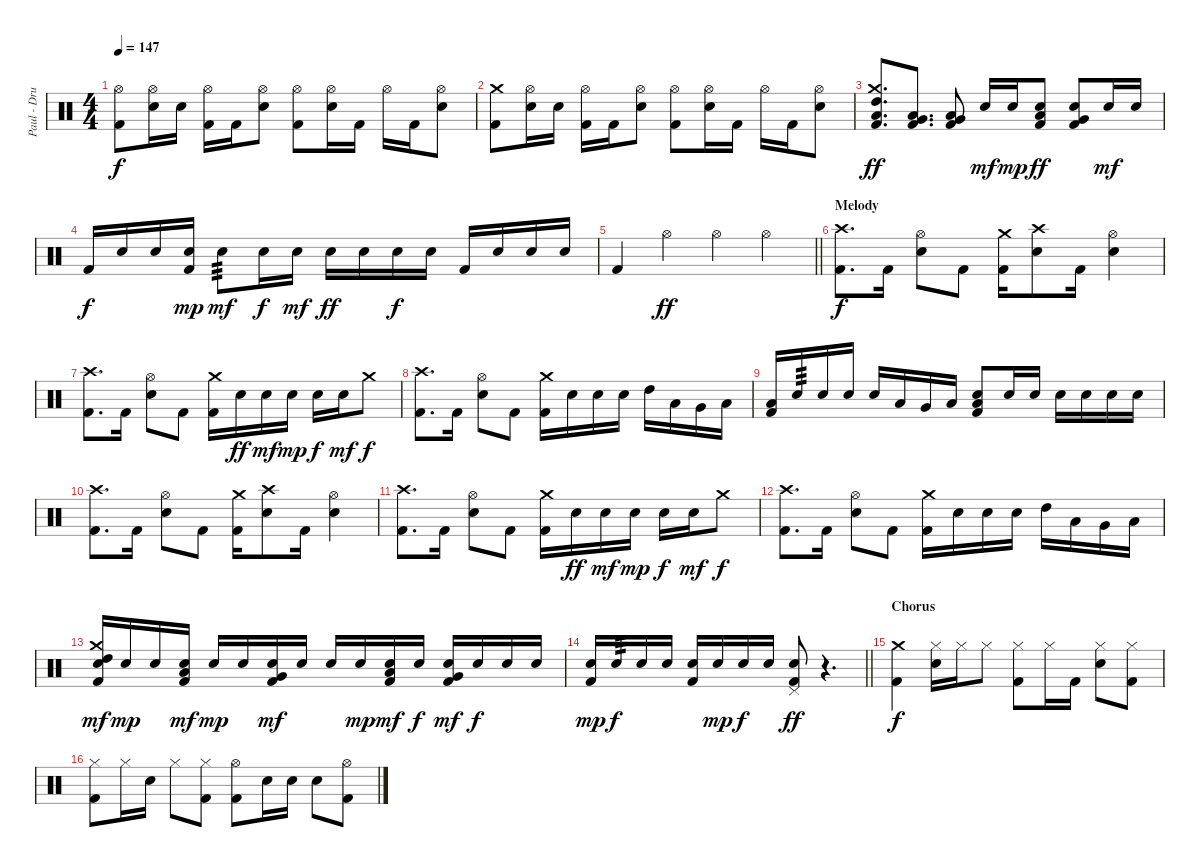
\track ("Paul - Drums" "Paul - Dru") {instrument percussion}
\staff {score}
\articulation defaults
\ts (4 4)
\tempo 147
\clef neutral
\ks c
("Hi-Hat (open)" "Kick (hit) 2").8{dy f} ("Hi-Hat (open)" "Electric Snare (hit)").16 "Electric Snare (hit)".16 ("Hi-Hat (open)" "Kick (hit) 2").16 "Kick (hit) 2".16 ("Hi-Hat (open)" "Electric Snare (hit)").8 ("Hi-Hat (open)" "Kick (hit) 2").8 ("Hi-Hat (open)" "Electric Snare (hit)").16 "Kick (hit) 2".16 "Hi-Hat (open)".16 "Kick (hit) 2".16 ("Hi-Hat (open)" "Electric Snare (hit)").8 |
("Crash medium (hit)" "Kick (hit) 2").8 ("Hi-Hat (open)" "Electric Snare (hit)").16 "Electric Snare (hit)".16 ("Hi-Hat (open)" "Kick (hit) 2").16 "Kick (hit) 2".16 ("Hi-Hat (open)" "Electric Snare (hit)").8 ("Hi-Hat (open)" "Kick (hit) 2").8 ("Hi-Hat (open)" "Electric Snare (hit)").16 "Kick (hit) 2".16 "Hi-Hat (open)".16 "Kick (hit) 2".16 ("Hi-Hat (open)" "Electric Snare (hit)").8 |
("Crash medium (hit)" "High Tom (hit)" "Low Tom (hit)" "Kick (hit) 2").8{d dy ff} ("Low Tom (hit)" "Very Low Tom (hit)" "Kick (hit) 2").8{d} ("Very Low Tom (hit)" "Low Floor Tom (hit)" "Kick (hit) 2").8 "Electric Snare (hit)".16{dy mf} "Electric Snare (hit)".16{dy mp} ("Low Tom (hit)" "Electric Snare (hit)" "Kick (hit) 2").8{dy ff} ("Very Low Tom (hit)" "Electric Snare (hit)" "Kick (hit) 2").8 "Electric Snare (hit)".16{dy mf} "Electric Snare (hit)".16 |
"Kick (hit) 2".16{dy f} "Electric Snare (hit)".16 "Electric Snare (hit)".16 ("Electric Snare (hit)" "Kick (hit) 2").16{dy mp} "Electric Snare (hit)".8{tp 3 dy mf} "Electric Snare (hit)".16{dy f} "Electric Snare (hit)".16{dy mf} "Electric Snare (hit)".16{dy ff} "Electric Snare (hit)".16 "Electric Snare (hit)".16{dy f} "Electric Snare (hit)".16 "Kick (hit) 2".16 "Electric Snare (hit)".16 "Electric Snare (hit)".16 "Electric Snare (hit)".16 |
\barLineRight lightlight "Kick (hit) 2".4 "Hi-Hat (open)".4{dy ff} "Hi-Hat (open)".4 "Hi-Hat (open)".4
|
\section ("" "Melody")
("Crash high (hit)" "Kick (hit) 2").8{d dy f} "Kick (hit) 2".16 ("Hi-Hat (open)" "Electric Snare (hit)").8 "Kick (hit) 2".8 ("Crash medium (hit)" "Kick (hit) 2").16 ("Crash high (hit)" "Electric Snare (hit)").8 "Kick (hit) 2".16 ("Hi-Hat (open)" "Electric Snare (hit)").4 |
("Crash high (hit)" "Kick (hit) 2").8{d} "Kick (hit) 2".16 ("Hi-Hat (open)" "Electric Snare (hit)").8 "Kick (hit) 2".8 ("Crash medium (hit)" "Kick (hit) 2").16 "Electric Snare (hit)".16{dy ff} "Electric Snare (hit)".16{dy mf} "Electric Snare (hit)".16{dy mp} "Electric Snare (hit)".16{dy f} "Electric Snare (hit)".16{dy mf} "Crash medium (hit)".8{dy f} |
("Crash high (hit)" "Kick (hit) 2").8{d} "Kick (hit) 2".16 ("Hi-Hat (open)" "Electric Snare (hit)").8 "Kick (hit) 2".8 ("Crash medium (hit)" "Kick (hit) 2").16 "Electric Snare (hit)".16 "Electric Snare (hit)".16 "Electric Snare (hit)".16 "High Tom (hit)".16 "Low Tom (hit)".16 "Very Low Tom (hit)".16 "Low Floor Tom (hit)".16 |
("Low Floor Tom (hit)" "Kick (hit) 2").16 "Electric Snare (hit)".16{tp 3} "Electric Snare (hit)".16 "Electric Snare (hit)".16 "Electric Snare (hit)".16 "Low Tom (hit)".16 "Very Low Tom (hit)".16 "Low Floor Tom (hit)".16 ("Low Floor Tom (hit)" "Electric Snare (hit)" "Kick (hit) 2").8 "Electric Snare (hit)".16 "Electric Snare (hit)".16 "Electric Snare (hit)".16 "Electric Snare (hit)".16 "Electric Snare (hit)".16 "Electric Snare (hit)".16 |
("Crash high (hit)" "Kick (hit) 2").8{d} "Kick (hit) 2".16 ("Hi-Hat (open)" "Electric Snare (hit)").8 "Kick (hit) 2".8 ("Crash medium (hit)" "Kick (hit) 2").16 ("Crash high (hit)" "Electric Snare (hit)").8 "Kick (hit) 2".16 ("Hi-Hat (open)" "Electric Snare (hit)").4 |
("Crash high (hit)" "Kick (hit) 2").8{d} "Kick (hit) 2".16 ("Hi-Hat (open)" "Electric Snare (hit)").8 "Kick (hit) 2".8 ("Crash medium (hit)" "Kick (hit) 2").16 "Electric Snare (hit)".16{dy ff} "Electric Snare (hit)".16{dy mf} "Electric Snare (hit)".16{dy mp} "Electric Snare (hit)".16{dy f} "Electric Snare (hit)".16{dy mf} "Crash medium (hit)".8{dy f} |
("Crash high (hit)" "Kick (hit) 2").8{d} "Kick (hit) 2".16 ("Hi-Hat (open)" "Electric Snare (hit)").8 "Kick (hit) 2".8 ("Crash medium (hit)" "Kick (hit) 2").16 "Electric Snare (hit)".16 "Electric Snare (hit)".16 "Electric Snare (hit)".16 "High Tom (hit)".16 "Low Tom (hit)".16 "Very Low Tom (hit)".16 "Low Floor Tom (hit)".16 |
("Crash medium (hit)" "High Tom (hit)" "Electric Snare (hit)" "Kick (hit) 2").16{dy mf} "Electric Snare (hit)".16{dy mp} "Electric Snare (hit)".16 ("Low Tom (hit)" "Electric Snare (hit)" "Kick (hit) 2").16{dy mf} "Electric Snare (hit)".16{dy mp} "Electric Snare (hit)".16 ("Very Low Tom (hit)" "Electric Snare (hit)" "Kick (hit) 2").16{dy mf} "Electric Snare (hit)".16 "Electric Snare (hit)".16 "Electric Snare (hit)".16{dy mp} ("Low Tom (hit)" "Electric Snare (hit)" "Kick (hit) 2").16{dy mf} "Electric Snare (hit)".16{dy f} ("Very Low Tom (hit)" "Electric Snare (hit)" "Kick (hit) 2").16{dy mf} "Electric Snare (hit)".16{dy f} "Electric Snare (hit)".16 "Electric Snare (hit)".16 |
\barLineRight lightlight
("Electric Snare (hit)" "Kick (hit) 2").16{dy mp} "Electric Snare (hit)".16{tp 3 dy f} "Electric Snare (hit)".16 "Electric Snare (hit)".16 ("Electric Snare (hit)" "Kick (hit) 2").16 "Electric Snare (hit)".16{dy mp} "Electric Snare (hit)".16{dy f} "Electric Snare (hit)".16 ("Pedal Hi-Hat (hit)" "Electric Snare (hit)" "Kick (hit) 2").8{dy ff} r.4{d} |
\section ("" "Chorus")
("Crash medium (hit)" "Kick (hit) 2").4{dy f} ("Hi-Hat (closed)" "Electric Snare (hit)").16 "Hi-Hat (closed)".16 "Hi-Hat (closed)".8 ("Hi-Hat (closed)" "Kick (hit) 2").8 "Hi-Hat (closed)".16 "Kick (hit) 2".16 ("Hi-Hat (closed)" "Electric Snare (hit)").8 ("Hi-Hat (closed)" "Kick (hit) 2").8 |
("Hi-Hat (closed)" "Kick (hit) 2").8 "Hi-Hat (closed)".16 "Electric Snare (hit)".16 "Hi-Hat (closed)".8 ("Hi-Hat (closed)" "Kick (hit) 2").8 ("Hi-Hat (open)" "Kick (hit) 2").8 "Electric Snare (hit)".16 "Electric Snare (hit)".16 "Electric Snare (hit)".8 ("Hi-Hat (open)" "Kick (hit) 2").8
